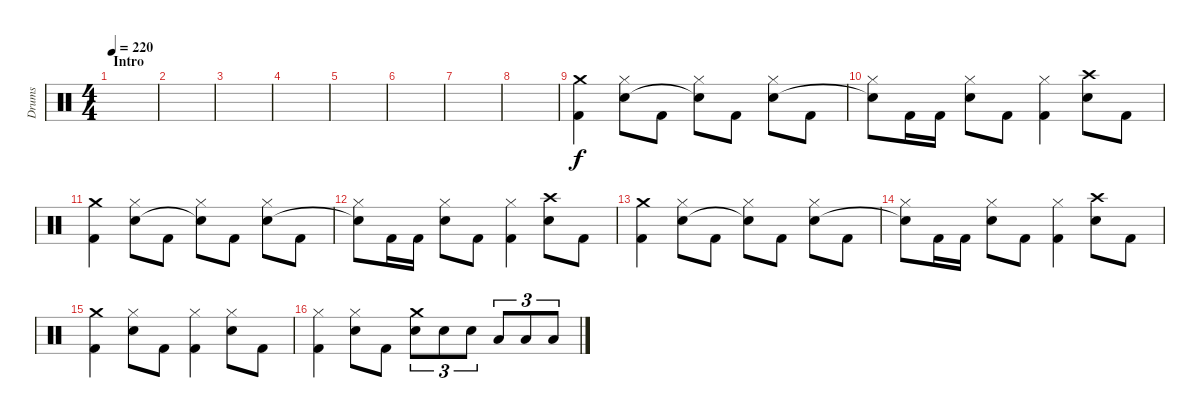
\track ("Drums" "Drums") {instrument percussion}
\staff {score}
\articulation defaults
\ts (4 4)
\section ("" "Intro")
\tempo 220
\clef neutral
\ks c
|
|
|
|
|
|
|
|
("Crash medium (hit)" "Kick (hit) 2").4 ("Hi-Hat (closed)" "Electric Snare (hit)").8 "Kick (hit) 2".8 ("Hi-Hat (closed)" "Snare (hit)"{t}).8 "Kick (hit) 2".8 ("Hi-Hat (closed)" "Electric Snare (hit)").8 "Kick (hit) 2".8 |
("Hi-Hat (closed)" "Snare (hit)"{t}).8 "Kick (hit) 2".16 "Kick (hit) 2".16 ("Hi-Hat (closed)" "Electric Snare (hit)").8 "Kick (hit) 2".8 ("Hi-Hat (closed)" "Kick (hit) 2").4 ("Crash high (hit)" "Electric Snare (hit)").8 "Kick (hit) 2".8 |
("Crash medium (hit)" "Kick (hit) 2").4 ("Hi-Hat (closed)" "Electric Snare (hit)").8 "Kick (hit) 2".8 ("Hi-Hat (closed)" "Snare (hit)"{t}).8 "Kick (hit) 2".8 ("Hi-Hat (closed)" "Electric Snare (hit)").8 "Kick (hit) 2".8 |
("Hi-Hat (closed)" "Snare (hit)"{t}).8 "Kick (hit) 2".16 "Kick (hit) 2".16 ("Hi-Hat (closed)" "Electric Snare (hit)").8 "Kick (hit) 2".8 ("Hi-Hat (closed)" "Kick (hit) 2").4 ("Crash high (hit)" "Electric Snare (hit)").8 "Kick (hit) 2".8 |
("Crash medium (hit)" "Kick (hit) 2").4 ("Hi-Hat (closed)" "Electric Snare (hit)").8 "Kick (hit) 2".8 ("Hi-Hat (closed)" "Snare (hit)"{t}).8 "Kick (hit) 2".8 ("Hi-Hat (closed)" "Electric Snare (hit)").8 "Kick (hit) 2".8 |
("Hi-Hat (closed)" "Snare (hit)"{t}).8 "Kick (hit) 2".16 "Kick (hit) 2".16 ("Hi-Hat (closed)" "Electric Snare (hit)").8 "Kick (hit) 2".8 ("Hi-Hat (closed)" "Kick (hit) 2").4 ("Crash high (hit)" "Electric Snare (hit)").8 "Kick (hit) 2".8 |
("Crash medium (hit)" "Kick (hit) 2").4 ("Hi-Hat (closed)" "Electric Snare (hit)").8 "Kick (hit) 2".8 ("Hi-Hat (closed)" "Kick (hit) 2").4 ("Hi-Hat (closed)" "Electric Snare (hit)").8 "Kick (hit) 2".8 |
("Hi-Hat (closed)" "Kick (hit) 2").4 ("Hi-Hat (closed)" "Electric Snare (hit)").8 "Kick (hit) 2".8 ("Crash medium (hit)" "Electric Snare (hit)").8{tu (3 2)} "Electric Snare (hit)".8{tu (3 2)} "Electric Snare (hit)".8{tu (3 2)} "Low Tom (hit)".8{tu (3 2)} "Low Tom (hit)".8{tu (3 2)} "Low Tom (hit)".8{tu (3 2)}
